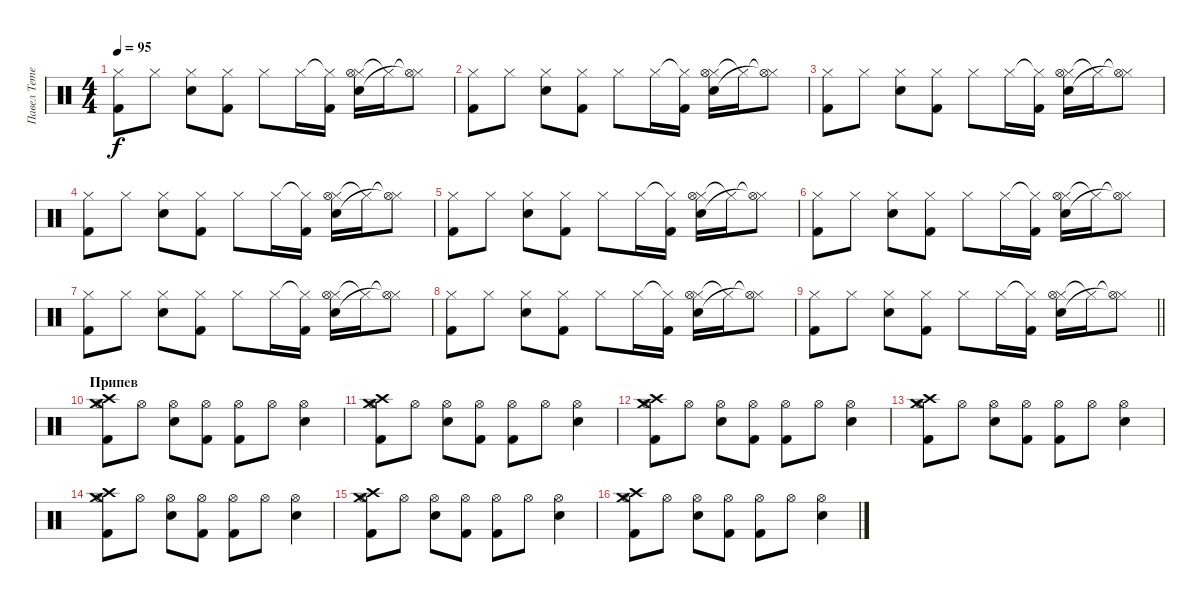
\track ("Павел Тетерин" "Павел Тете") {instrument percussion}
\staff {score}
\articulation defaults
\ts (4 4)
\tempo 95
\clef neutral
\ks c
("Hi-Hat (closed)" "Kick (hit) 2").8{dy f} "Hi-Hat (closed)".8 ("Hi-Hat (closed)" "Snare (hit) 2").8 ("Hi-Hat (closed)" "Kick (hit) 2").8 "Hi-Hat (closed)".8 "Hi-Hat (closed)".16 ("Hi-Hat (closed)"{t} "Kick (hit) 2").16 ("Hi-Hat (closed)" "Snare (hit) 2" "Hi-Hat (open)").16 "Hi-Hat (closed)"{t}.16 ("Hi-Hat (closed)"{t} "Hi-Hat (open)"{t}).8 |
("Hi-Hat (closed)" "Kick (hit) 2").8 "Hi-Hat (closed)".8 ("Hi-Hat (closed)" "Snare (hit) 2").8 ("Hi-Hat (closed)" "Kick (hit) 2").8 "Hi-Hat (closed)".8 "Hi-Hat (closed)".16 ("Hi-Hat (closed)"{t} "Kick (hit) 2").16 ("Hi-Hat (closed)" "Snare (hit) 2" "Hi-Hat (open)").16 "Hi-Hat (closed)"{t}.16 ("Hi-Hat (closed)"{t} "Hi-Hat (open)"{t}).8 |
("Hi-Hat (closed)" "Kick (hit) 2").8 "Hi-Hat (closed)".8 ("Hi-Hat (closed)" "Snare (hit) 2").8 ("Hi-Hat (closed)" "Kick (hit) 2").8 "Hi-Hat (closed)".8 "Hi-Hat (closed)".16 ("Hi-Hat (closed)"{t} "Kick (hit) 2").16 ("Hi-Hat (closed)" "Snare (hit) 2" "Hi-Hat (open)").16 "Hi-Hat (closed)"{t}.16 ("Hi-Hat (closed)"{t} "Hi-Hat (open)"{t}).8 |
("Hi-Hat (closed)" "Kick (hit) 2").8 "Hi-Hat (closed)".8 ("Hi-Hat (closed)" "Snare (hit) 2").8 ("Hi-Hat (closed)" "Kick (hit) 2").8 "Hi-Hat (closed)".8 "Hi-Hat (closed)".16 ("Hi-Hat (closed)"{t} "Kick (hit) 2").16 ("Hi-Hat (closed)" "Snare (hit) 2" "Hi-Hat (open)").16 "Hi-Hat (closed)"{t}.16 ("Hi-Hat (closed)"{t} "Hi-Hat (open)"{t}).8 |
("Hi-Hat (closed)" "Kick (hit) 2").8 "Hi-Hat (closed)".8 ("Hi-Hat (closed)" "Snare (hit) 2").8 ("Hi-Hat (closed)" "Kick (hit) 2").8 "Hi-Hat (closed)".8 "Hi-Hat (closed)".16 ("Hi-Hat (closed)"{t} "Kick (hit) 2").16 ("Hi-Hat (closed)" "Snare (hit) 2" "Hi-Hat (open)").16 "Hi-Hat (closed)"{t}.16 ("Hi-Hat (closed)"{t} "Hi-Hat (open)"{t}).8 |
("Hi-Hat (closed)" "Kick (hit) 2").8 "Hi-Hat (closed)".8 ("Hi-Hat (closed)" "Snare (hit) 2").8 ("Hi-Hat (closed)" "Kick (hit) 2").8 "Hi-Hat (closed)".8 "Hi-Hat (closed)".16 ("Hi-Hat (closed)"{t} "Kick (hit) 2").16 ("Hi-Hat (closed)" "Snare (hit) 2" "Hi-Hat (open)").16 "Hi-Hat (closed)"{t}.16 ("Hi-Hat (closed)"{t} "Hi-Hat (open)"{t}).8 |
("Hi-Hat (closed)" "Kick (hit) 2").8 "Hi-Hat (closed)".8 ("Hi-Hat (closed)" "Snare (hit) 2").8 ("Hi-Hat (closed)" "Kick (hit) 2").8 "Hi-Hat (closed)".8 "Hi-Hat (closed)".16 ("Hi-Hat (closed)"{t} "Kick (hit) 2").16 ("Hi-Hat (closed)" "Snare (hit) 2" "Hi-Hat (open)").16 "Hi-Hat (closed)"{t}.16 ("Hi-Hat (closed)"{t} "Hi-Hat (open)"{t}).8 |
("Hi-Hat (closed)" "Kick (hit) 2").8 "Hi-Hat (closed)".8 ("Hi-Hat (closed)" "Snare (hit) 2").8 ("Hi-Hat (closed)" "Kick (hit) 2").8 "Hi-Hat (closed)".8 "Hi-Hat (closed)".16 ("Hi-Hat (closed)"{t} "Kick (hit) 2").16 ("Hi-Hat (closed)" "Snare (hit) 2" "Hi-Hat (open)").16 "Hi-Hat (closed)"{t}.16 ("Hi-Hat (closed)"{t} "Hi-Hat (open)"{t}).8 |
\barLineRight lightlight
("Hi-Hat (closed)" "Kick (hit) 2").8 "Hi-Hat (closed)".8 ("Hi-Hat (closed)" "Snare (hit) 2").8 ("Hi-Hat (closed)" "Kick (hit) 2").8 "Hi-Hat (closed)".8 "Hi-Hat (closed)".16 ("Hi-Hat (closed)"{t} "Kick (hit) 2").16 ("Hi-Hat (closed)" "Snare (hit) 2" "Hi-Hat (open)").16 "Hi-Hat (closed)"{t}.16 ("Hi-Hat (closed)"{t} "Hi-Hat (open)"{t}).8 |
\section ("" "Припев")
("Crash high (hit)" "Crash medium (hit)" "Kick (hit) 2" "Hi-Hat (open)").8 "Hi-Hat (open)".8 ("Hi-Hat (open)" "Snare (hit) 2").8 ("Hi-Hat (open)" "Kick (hit) 2").8 ("Hi-Hat (open)" "Kick (hit) 2").8 "Hi-Hat (open)".8 ("Hi-Hat (open)" "Snare (hit) 2").4 |
("Crash high (hit)" "Crash medium (hit)" "Kick (hit) 2" "Hi-Hat (open)").8 "Hi-Hat (open)".8 ("Hi-Hat (open)" "Snare (hit) 2").8 ("Hi-Hat (open)" "Kick (hit) 2").8 ("Hi-Hat (open)" "Kick (hit) 2").8 "Hi-Hat (open)".8 ("Hi-Hat (open)" "Snare (hit) 2").4 |
("Crash high (hit)" "Crash medium (hit)" "Kick (hit) 2" "Hi-Hat (open)").8 "Hi-Hat (open)".8 ("Hi-Hat (open)" "Snare (hit) 2").8 ("Hi-Hat (open)" "Kick (hit) 2").8 ("Hi-Hat (open)" "Kick (hit) 2").8 "Hi-Hat (open)".8 ("Hi-Hat (open)" "Snare (hit) 2").4 |
("Crash high (hit)" "Crash medium (hit)" "Kick (hit) 2" "Hi-Hat (open)").8 "Hi-Hat (open)".8 ("Hi-Hat (open)" "Snare (hit) 2").8 ("Hi-Hat (open)" "Kick (hit) 2").8 ("Hi-Hat (open)" "Kick (hit) 2").8 "Hi-Hat (open)".8 ("Hi-Hat (open)" "Snare (hit) 2").4 |
("Crash high (hit)" "Hi-Hat (open)" "Kick (hit) 2" "Crash medium (hit)").8 "Hi-Hat (open)".8 ("Hi-Hat (open)" "Snare (hit) 2").8 ("Hi-Hat (open)" "Kick (hit) 2").8 ("Hi-Hat (open)" "Kick (hit) 2").8 "Hi-Hat (open)".8 ("Hi-Hat (open)" "Snare (hit) 2").4 |
("Crash high (hit)" "Crash medium (hit)" "Kick (hit) 2" "Hi-Hat (open)").8 "Hi-Hat (open)".8 ("Hi-Hat (open)" "Snare (hit) 2").8 ("Hi-Hat (open)" "Kick (hit) 2").8 ("Hi-Hat (open)" "Kick (hit) 2").8 "Hi-Hat (open)".8 ("Hi-Hat (open)" "Snare (hit) 2").4 |
("Crash high (hit)" "Hi-Hat (open)" "Kick (hit) 2" "Crash medium (hit)").8 "Hi-Hat (open)".8 ("Hi-Hat (open)" "Snare (hit) 2").8 ("Hi-Hat (open)" "Kick (hit) 2").8 ("Hi-Hat (open)" "Kick (hit) 2").8 "Hi-Hat (open)".8 ("Hi-Hat (open)" "Snare (hit) 2").4
